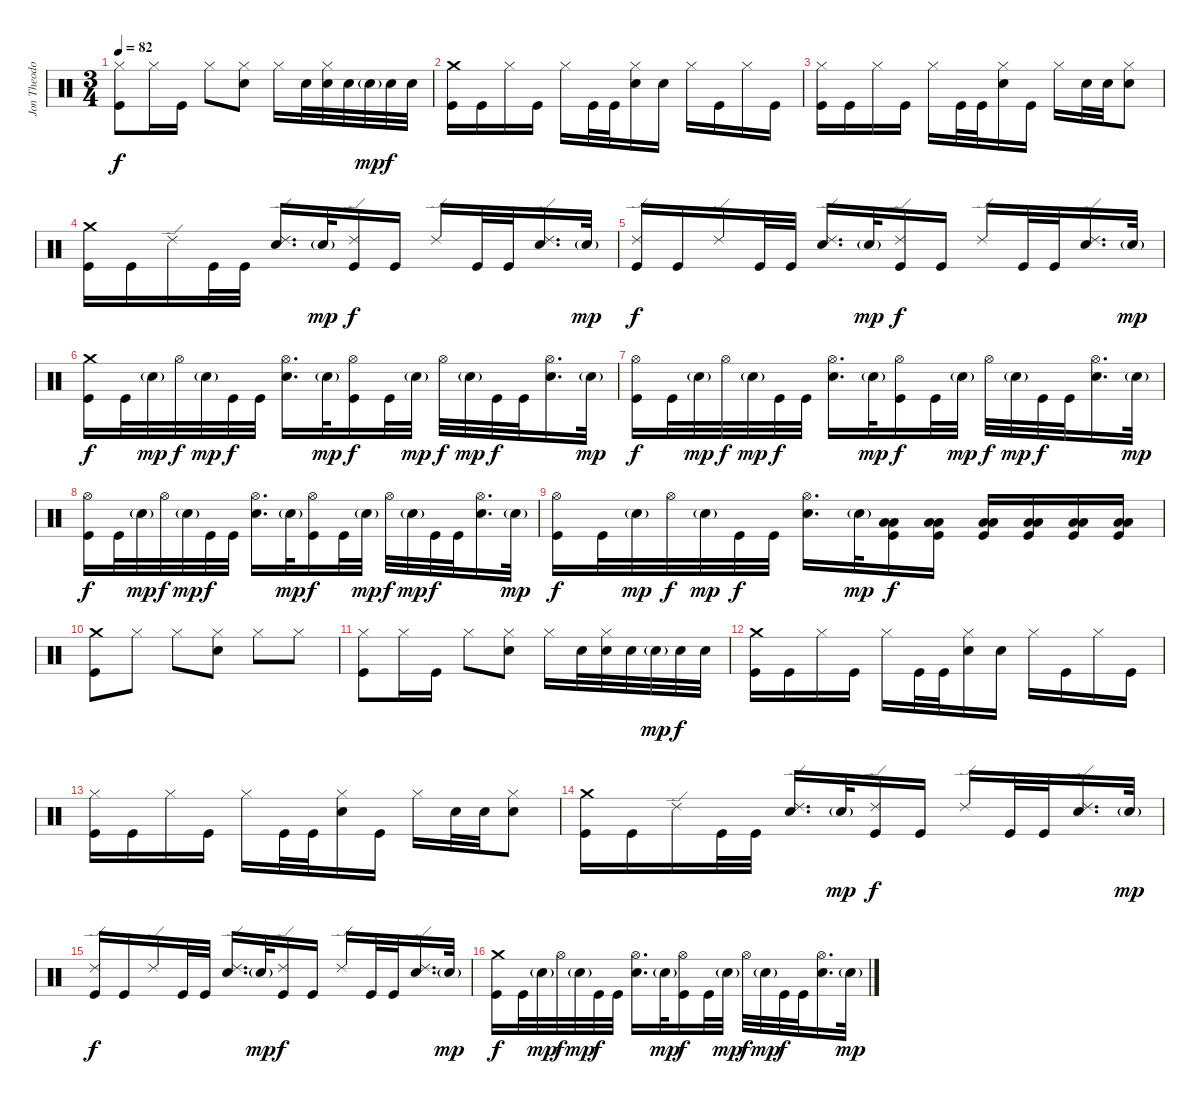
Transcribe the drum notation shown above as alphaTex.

\track ("Jon Theodore" "Jon Theodo") {instrument percussion}
\staff {score}
\articulation defaults
\ts (3 4)
\tempo 82
\clef neutral
\ks c
("Hi-Hat (closed)" "Kick (hit)").8{dy f} "Hi-Hat (closed)".16 "Kick (hit)".16 "Hi-Hat (closed)".8 ("Hi-Hat (closed)" "Snare (hit) 2").8 "Hi-Hat (closed)".16 "Snare (hit) 2".32 ("Hi-Hat (closed)" "Snare (hit) 2").32 "Snare (hit) 2".32 "Snare (hit) 2"{g}.32{dy mp} "Snare (hit) 2".32{dy f} "Snare (hit) 2".32 |
("Crash medium (hit)" "Kick (hit)").16 "Kick (hit)".16 "Hi-Hat (closed)".16 "Kick (hit)".16 "Hi-Hat (closed)".16 "Kick (hit)".32 "Kick (hit)".32 ("Hi-Hat (closed)" "Snare (hit) 2").16 "Snare (hit) 2".16 "Hi-Hat (closed)".16 "Kick (hit)".16 "Hi-Hat (closed)".16 "Kick (hit)".16 |
("Hi-Hat (closed)" "Kick (hit)").16 "Kick (hit)".16 "Hi-Hat (closed)".16 "Kick (hit)".16 "Hi-Hat (closed)".16 "Kick (hit)".32 "Kick (hit)".32 ("Hi-Hat (closed)" "Snare (hit) 2").16 "Kick (hit)".16 "Hi-Hat (closed)".16 "Snare (hit) 2".32 "Snare (hit) 2".32 ("Hi-Hat (closed)" "Snare (hit) 2").8 |
("Crash medium (hit)" "Kick (hit)").16 "Kick (hit)".16 "Ride (edge) 2".16 "Kick (hit)".32 "Kick (hit)".32 ("Ride (edge) 2" "Snare (hit) 2").16{d} "Snare (hit) 2"{g}.32{dy mp} ("Ride (edge) 2" "Kick (hit)").16{dy f} "Kick (hit)".16 "Ride (edge) 2".16 "Kick (hit)".32 "Kick (hit)".32 ("Ride (edge) 2" "Snare (hit) 2").16{d} "Snare (hit) 2"{g}.32{dy mp} |
("Ride (edge) 2" "Kick (hit)").16{dy f} "Kick (hit)".16 "Ride (edge) 2".16 "Kick (hit)".32 "Kick (hit)".32 ("Ride (edge) 2" "Snare (hit) 2").16{d} "Snare (hit) 2"{g}.32{dy mp} ("Ride (edge) 2" "Kick (hit)").16{dy f} "Kick (hit)".16 "Ride (edge) 2".16 "Kick (hit)".32 "Kick (hit)".32 ("Ride (edge) 2" "Snare (hit) 2").16{d} "Snare (hit) 2"{g}.32{dy mp} |
("Crash medium (hit)" "Kick (hit)").16{dy f} "Kick (hit)".32 "Snare (hit) 2"{g}.32{dy mp} "Hi-Hat (open)".32{dy f} "Snare (hit) 2"{g}.32{dy mp} "Kick (hit)".32{dy f} "Kick (hit)".32 ("Hi-Hat (open)" "Snare (hit) 2").16{d} "Snare (hit) 2"{g}.32{dy mp} ("Hi-Hat (open)" "Kick (hit)").16{dy f} "Kick (hit)".32 "Snare (hit) 2"{g}.32{dy mp} "Hi-Hat (open)".32{dy f} "Snare (hit) 2"{g}.32{dy mp} "Kick (hit)".32{dy f} "Kick (hit)".32 ("Hi-Hat (open)" "Snare (hit) 2").16{d} "Snare (hit) 2"{g}.32{dy mp} |
("Hi-Hat (open)" "Kick (hit)").16{dy f} "Kick (hit)".32 "Snare (hit) 2"{g}.32{dy mp} "Hi-Hat (open)".32{dy f} "Snare (hit) 2"{g}.32{dy mp} "Kick (hit)".32{dy f} "Kick (hit)".32 ("Hi-Hat (open)" "Snare (hit) 2").16{d} "Snare (hit) 2"{g}.32{dy mp} ("Hi-Hat (open)" "Kick (hit)").16{dy f} "Kick (hit)".32 "Snare (hit) 2"{g}.32{dy mp} "Hi-Hat (open)".32{dy f} "Snare (hit) 2"{g}.32{dy mp} "Kick (hit)".32{dy f} "Kick (hit)".32 ("Hi-Hat (open)" "Snare (hit) 2").16{d} "Snare (hit) 2"{g}.32{dy mp} |
("Hi-Hat (open)" "Kick (hit)").16{dy f} "Kick (hit)".32 "Snare (hit) 2"{g}.32{dy mp} "Hi-Hat (open)".32{dy f} "Snare (hit) 2"{g}.32{dy mp} "Kick (hit)".32{dy f} "Kick (hit)".32 ("Hi-Hat (open)" "Snare (hit) 2").16{d} "Snare (hit) 2"{g}.32{dy mp} ("Hi-Hat (open)" "Kick (hit)").16{dy f} "Kick (hit)".32 "Snare (hit) 2"{g}.32{dy mp} "Hi-Hat (open)".32{dy f} "Snare (hit) 2"{g}.32{dy mp} "Kick (hit)".32{dy f} "Kick (hit)".32 ("Hi-Hat (open)" "Snare (hit) 2").16{d} "Snare (hit) 2"{g}.32{dy mp} |
("Hi-Hat (open)" "Kick (hit)").16{dy f} "Kick (hit)".32 "Snare (hit) 2"{g}.32{dy mp} "Hi-Hat (open)".32{dy f} "Snare (hit) 2"{g}.32{dy mp} "Kick (hit)".32{dy f} "Kick (hit)".32 ("Hi-Hat (open)" "Snare (hit) 2").16{d} "Snare (hit) 2"{g}.32{dy mp} ("Low Tom (hit)" "Low Floor Tom (hit)" "Kick (hit)").16{dy f} ("Low Tom (hit)" "Low Floor Tom (hit)" "Kick (hit)").16 ("Low Tom (hit)" "Low Floor Tom (hit)" "Kick (hit)").16 ("Low Tom (hit)" "Low Floor Tom (hit)" "Kick (hit)").16 ("Low Tom (hit)" "Low Floor Tom (hit)" "Kick (hit)").16 ("Low Tom (hit)" "Low Floor Tom (hit)" "Kick (hit)").16 |
("Crash medium (hit)" "Kick (hit)").8 "Hi-Hat (closed)".8 "Hi-Hat (closed)".8 ("Hi-Hat (closed)" "Snare (hit) 2").8 "Hi-Hat (closed)".8 "Hi-Hat (closed)".8 |
("Hi-Hat (closed)" "Kick (hit)").8 "Hi-Hat (closed)".16 "Kick (hit)".16 "Hi-Hat (closed)".8 ("Hi-Hat (closed)" "Snare (hit) 2").8 "Hi-Hat (closed)".16 "Snare (hit) 2".32 ("Hi-Hat (closed)" "Snare (hit) 2").32 "Snare (hit) 2".32 "Snare (hit) 2"{g}.32{dy mp} "Snare (hit) 2".32{dy f} "Snare (hit) 2".32 |
("Crash medium (hit)" "Kick (hit)").16 "Kick (hit)".16 "Hi-Hat (closed)".16 "Kick (hit)".16 "Hi-Hat (closed)".16 "Kick (hit)".32 "Kick (hit)".32 ("Hi-Hat (closed)" "Snare (hit) 2").16 "Snare (hit) 2".16 "Hi-Hat (closed)".16 "Kick (hit)".16 "Hi-Hat (closed)".16 "Kick (hit)".16 |
("Hi-Hat (closed)" "Kick (hit)").16 "Kick (hit)".16 "Hi-Hat (closed)".16 "Kick (hit)".16 "Hi-Hat (closed)".16 "Kick (hit)".32 "Kick (hit)".32 ("Hi-Hat (closed)" "Snare (hit) 2").16 "Kick (hit)".16 "Hi-Hat (closed)".16 "Snare (hit) 2".32 "Snare (hit) 2".32 ("Hi-Hat (closed)" "Snare (hit) 2").8 |
("Crash medium (hit)" "Kick (hit)").16 "Kick (hit)".16 "Ride (edge) 2".16 "Kick (hit)".32 "Kick (hit)".32 ("Ride (edge) 2" "Snare (hit) 2").16{d} "Snare (hit) 2"{g}.32{dy mp} ("Ride (edge) 2" "Kick (hit)").16{dy f} "Kick (hit)".16 "Ride (edge) 2".16 "Kick (hit)".32 "Kick (hit)".32 ("Ride (edge) 2" "Snare (hit) 2").16{d} "Snare (hit) 2"{g}.32{dy mp} |
("Ride (edge) 2" "Kick (hit)").16{dy f} "Kick (hit)".16 "Ride (edge) 2".16 "Kick (hit)".32 "Kick (hit)".32 ("Ride (edge) 2" "Snare (hit) 2").16{d} "Snare (hit) 2"{g}.32{dy mp} ("Ride (edge) 2" "Kick (hit)").16{dy f} "Kick (hit)".16 "Ride (edge) 2".16 "Kick (hit)".32 "Kick (hit)".32 ("Ride (edge) 2" "Snare (hit) 2").16{d} "Snare (hit) 2"{g}.32{dy mp} |
("Crash medium (hit)" "Kick (hit)").16{dy f} "Kick (hit)".32 "Snare (hit) 2"{g}.32{dy mp} "Hi-Hat (open)".32{dy f} "Snare (hit) 2"{g}.32{dy mp} "Kick (hit)".32{dy f} "Kick (hit)".32 ("Hi-Hat (open)" "Snare (hit) 2").16{d} "Snare (hit) 2"{g}.32{dy mp} ("Hi-Hat (open)" "Kick (hit)").16{dy f} "Kick (hit)".32 "Snare (hit) 2"{g}.32{dy mp} "Hi-Hat (open)".32{dy f} "Snare (hit) 2"{g}.32{dy mp} "Kick (hit)".32{dy f} "Kick (hit)".32 ("Hi-Hat (open)" "Snare (hit) 2").16{d} "Snare (hit) 2"{g}.32{dy mp}
